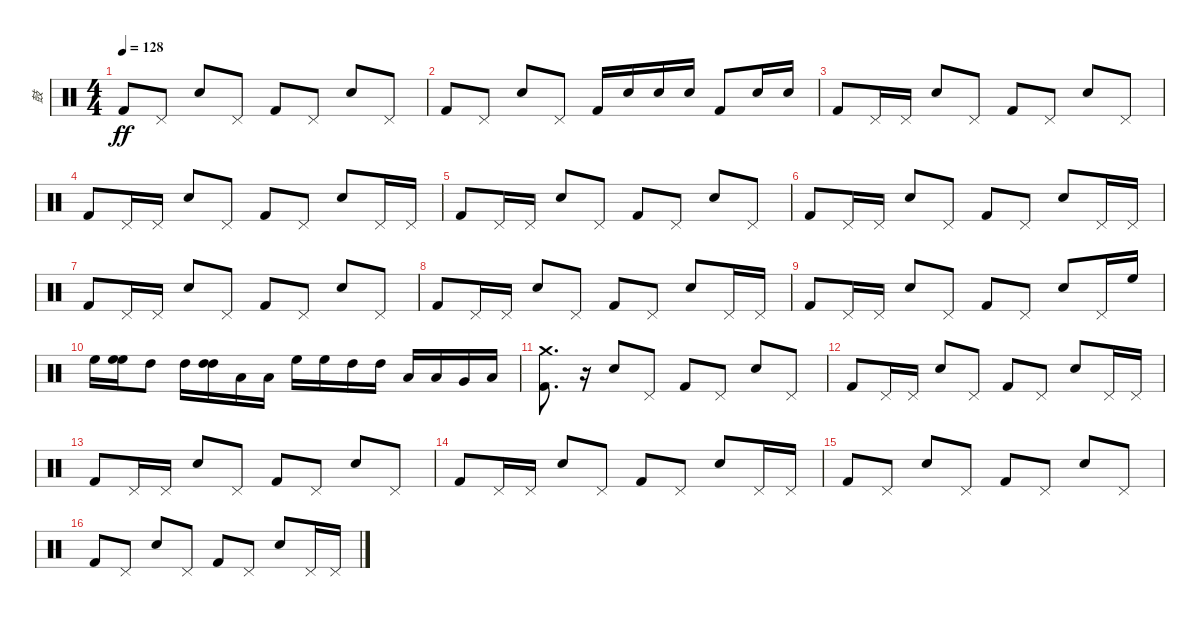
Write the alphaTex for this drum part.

\track ("鼓" "鼓") {instrument percussion}
\staff {score}
\articulation defaults
\ts (4 4)
\tempo 128
\clef neutral
\ks c "Kick (hit) 2".8{dy ff} "Pedal Hi-Hat (hit)".8 "Snare (hit) 2".8 "Pedal Hi-Hat (hit)".8 "Kick (hit) 2".8 "Pedal Hi-Hat (hit)".8 "Snare (hit) 2".8 "Pedal Hi-Hat (hit)".8
|
"Kick (hit) 2".8 "Pedal Hi-Hat (hit)".8 "Snare (hit) 2".8 "Pedal Hi-Hat (hit)".8 "Kick (hit) 2".16 "Snare (hit) 2".16 "Snare (hit) 2".16 "Snare (hit) 2".16 "Kick (hit) 2".8 "Snare (hit) 2".16 "Snare (hit) 2".16 |
"Kick (hit) 2".8 "Pedal Hi-Hat (hit)".16 "Pedal Hi-Hat (hit)".16 "Snare (hit) 2".8 "Pedal Hi-Hat (hit)".8 "Kick (hit) 2".8 "Pedal Hi-Hat (hit)".8 "Snare (hit) 2".8 "Pedal Hi-Hat (hit)".8 |
"Kick (hit) 2".8 "Pedal Hi-Hat (hit)".16 "Pedal Hi-Hat (hit)".16 "Snare (hit) 2".8 "Pedal Hi-Hat (hit)".8 "Kick (hit) 2".8 "Pedal Hi-Hat (hit)".8 "Snare (hit) 2".8 "Pedal Hi-Hat (hit)".16 "Pedal Hi-Hat (hit)".16 |
"Kick (hit) 2".8 "Pedal Hi-Hat (hit)".16 "Pedal Hi-Hat (hit)".16 "Snare (hit) 2".8 "Pedal Hi-Hat (hit)".8 "Kick (hit) 2".8 "Pedal Hi-Hat (hit)".8 "Snare (hit) 2".8 "Pedal Hi-Hat (hit)".8 |
"Kick (hit) 2".8 "Pedal Hi-Hat (hit)".16 "Pedal Hi-Hat (hit)".16 "Snare (hit) 2".8 "Pedal Hi-Hat (hit)".8 "Kick (hit) 2".8 "Pedal Hi-Hat (hit)".8 "Snare (hit) 2".8 "Pedal Hi-Hat (hit)".16 "Pedal Hi-Hat (hit)".16 |
"Kick (hit) 2".8 "Pedal Hi-Hat (hit)".16 "Pedal Hi-Hat (hit)".16 "Snare (hit) 2".8 "Pedal Hi-Hat (hit)".8 "Kick (hit) 2".8 "Pedal Hi-Hat (hit)".8 "Snare (hit) 2".8 "Pedal Hi-Hat (hit)".8 |
"Kick (hit) 2".8 "Pedal Hi-Hat (hit)".16 "Pedal Hi-Hat (hit)".16 "Snare (hit) 2".8 "Pedal Hi-Hat (hit)".8 "Kick (hit) 2".8 "Pedal Hi-Hat (hit)".8 "Snare (hit) 2".8 "Pedal Hi-Hat (hit)".16 "Pedal Hi-Hat (hit)".16 |
"Kick (hit) 2".8 "Pedal Hi-Hat (hit)".16 "Pedal Hi-Hat (hit)".16 "Snare (hit) 2".8 "Pedal Hi-Hat (hit)".8 "Kick (hit) 2".8 "Pedal Hi-Hat (hit)".8 "Snare (hit) 2".8 "Pedal Hi-Hat (hit)".16 "High Floor Tom (hit)".16 |
"High Floor Tom (hit)".16 ("High Floor Tom (hit)" "High Floor Tom (hit)").16 "High Tom (hit)".8 "High Tom (hit)".16 ("High Tom (hit)" "High Tom (hit)").16 "Low Tom (hit)".16 "Low Tom (hit)".16 "High Floor Tom (hit)".16 "High Floor Tom (hit)".16 "High Tom (hit)".16 "High Tom (hit)".16 "Low Tom (hit)".16 "Low Tom (hit)".16 "Very Low Tom (hit)".16 "Low Floor Tom (hit)".16 |
("Kick (hit) 2" "Crash medium (hit)").8{d} r.16 "Snare (hit) 2".8 "Pedal Hi-Hat (hit)".8 "Kick (hit) 2".8 "Pedal Hi-Hat (hit)".8 "Snare (hit) 2".8 "Pedal Hi-Hat (hit)".8 |
"Kick (hit) 2".8 "Pedal Hi-Hat (hit)".16 "Pedal Hi-Hat (hit)".16 "Snare (hit) 2".8 "Pedal Hi-Hat (hit)".8 "Kick (hit) 2".8 "Pedal Hi-Hat (hit)".8 "Snare (hit) 2".8 "Pedal Hi-Hat (hit)".16 "Pedal Hi-Hat (hit)".16 |
"Kick (hit) 2".8 "Pedal Hi-Hat (hit)".16 "Pedal Hi-Hat (hit)".16 "Snare (hit) 2".8 "Pedal Hi-Hat (hit)".8 "Kick (hit) 2".8 "Pedal Hi-Hat (hit)".8 "Snare (hit) 2".8 "Pedal Hi-Hat (hit)".8 |
"Kick (hit) 2".8 "Pedal Hi-Hat (hit)".16 "Pedal Hi-Hat (hit)".16 "Snare (hit) 2".8 "Pedal Hi-Hat (hit)".8 "Kick (hit) 2".8 "Pedal Hi-Hat (hit)".8 "Snare (hit) 2".8 "Pedal Hi-Hat (hit)".16 "Pedal Hi-Hat (hit)".16 |
"Kick (hit) 2".8 "Pedal Hi-Hat (hit)".8 "Snare (hit) 2".8 "Pedal Hi-Hat (hit)".8 "Kick (hit) 2".8 "Pedal Hi-Hat (hit)".8 "Snare (hit) 2".8 "Pedal Hi-Hat (hit)".8 |
"Kick (hit) 2".8 "Pedal Hi-Hat (hit)".8 "Snare (hit) 2".8 "Pedal Hi-Hat (hit)".8 "Kick (hit) 2".8 "Pedal Hi-Hat (hit)".8 "Snare (hit) 2".8 "Pedal Hi-Hat (hit)".16 "Pedal Hi-Hat (hit)".16
